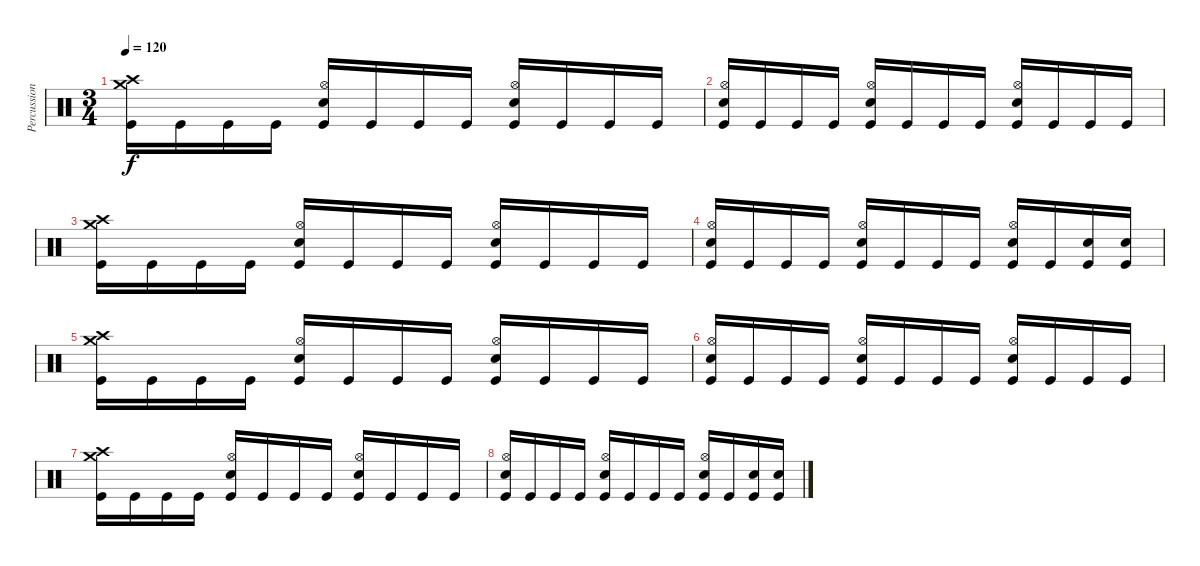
\track ("Percussion" "Percussion") {instrument percussion}
\staff {score}
\articulation defaults
\ts (3 4)
\tempo 120
\clef neutral
\ks c
("Crash medium (hit)" "Crash high (hit)" "Kick (hit)").16{dy f} "Kick (hit)".16 "Kick (hit)".16 "Kick (hit)".16 ("Hi-Hat (open)" "Snare (hit) 2" "Kick (hit)").16 "Kick (hit)".16 "Kick (hit)".16 "Kick (hit)".16 ("Hi-Hat (open)" "Snare (hit) 2" "Kick (hit)").16 "Kick (hit)".16 "Kick (hit)".16 "Kick (hit)".16 |
("Hi-Hat (open)" "Snare (hit) 2" "Kick (hit)").16 "Kick (hit)".16 "Kick (hit)".16 "Kick (hit)".16 ("Hi-Hat (open)" "Snare (hit) 2" "Kick (hit)").16 "Kick (hit)".16 "Kick (hit)".16 "Kick (hit)".16 ("Hi-Hat (open)" "Snare (hit) 2" "Kick (hit)").16 "Kick (hit)".16 "Kick (hit)".16 "Kick (hit)".16 |
("Crash medium (hit)" "Crash high (hit)" "Kick (hit)").16 "Kick (hit)".16 "Kick (hit)".16 "Kick (hit)".16 ("Hi-Hat (open)" "Snare (hit) 2" "Kick (hit)").16 "Kick (hit)".16 "Kick (hit)".16 "Kick (hit)".16 ("Hi-Hat (open)" "Snare (hit) 2" "Kick (hit)").16 "Kick (hit)".16 "Kick (hit)".16 "Kick (hit)".16 |
("Hi-Hat (open)" "Snare (hit) 2" "Kick (hit)").16 "Kick (hit)".16 "Kick (hit)".16 "Kick (hit)".16 ("Hi-Hat (open)" "Snare (hit) 2" "Kick (hit)").16 "Kick (hit)".16 "Kick (hit)".16 "Kick (hit)".16 ("Hi-Hat (open)" "Snare (hit) 2" "Kick (hit)").16 "Kick (hit)".16 ("Snare (hit) 2" "Kick (hit)").16 ("Snare (hit) 2" "Kick (hit)").16 |
("Crash medium (hit)" "Crash high (hit)" "Kick (hit)").16 "Kick (hit)".16 "Kick (hit)".16 "Kick (hit)".16 ("Hi-Hat (open)" "Snare (hit) 2" "Kick (hit)").16 "Kick (hit)".16 "Kick (hit)".16 "Kick (hit)".16 ("Hi-Hat (open)" "Snare (hit) 2" "Kick (hit)").16 "Kick (hit)".16 "Kick (hit)".16 "Kick (hit)".16 |
("Hi-Hat (open)" "Snare (hit) 2" "Kick (hit)").16 "Kick (hit)".16 "Kick (hit)".16 "Kick (hit)".16 ("Hi-Hat (open)" "Snare (hit) 2" "Kick (hit)").16 "Kick (hit)".16 "Kick (hit)".16 "Kick (hit)".16 ("Hi-Hat (open)" "Snare (hit) 2" "Kick (hit)").16 "Kick (hit)".16 "Kick (hit)".16 "Kick (hit)".16 |
("Crash medium (hit)" "Crash high (hit)" "Kick (hit)").16 "Kick (hit)".16 "Kick (hit)".16 "Kick (hit)".16 ("Hi-Hat (open)" "Snare (hit) 2" "Kick (hit)").16 "Kick (hit)".16 "Kick (hit)".16 "Kick (hit)".16 ("Hi-Hat (open)" "Snare (hit) 2" "Kick (hit)").16 "Kick (hit)".16 "Kick (hit)".16 "Kick (hit)".16 |
("Hi-Hat (open)" "Snare (hit) 2" "Kick (hit)").16 "Kick (hit)".16 "Kick (hit)".16 "Kick (hit)".16 ("Hi-Hat (open)" "Snare (hit) 2" "Kick (hit)").16 "Kick (hit)".16 "Kick (hit)".16 "Kick (hit)".16 ("Hi-Hat (open)" "Snare (hit) 2" "Kick (hit)").16 "Kick (hit)".16 ("Snare (hit) 2" "Kick (hit)").16 ("Snare (hit) 2" "Kick (hit)").16
